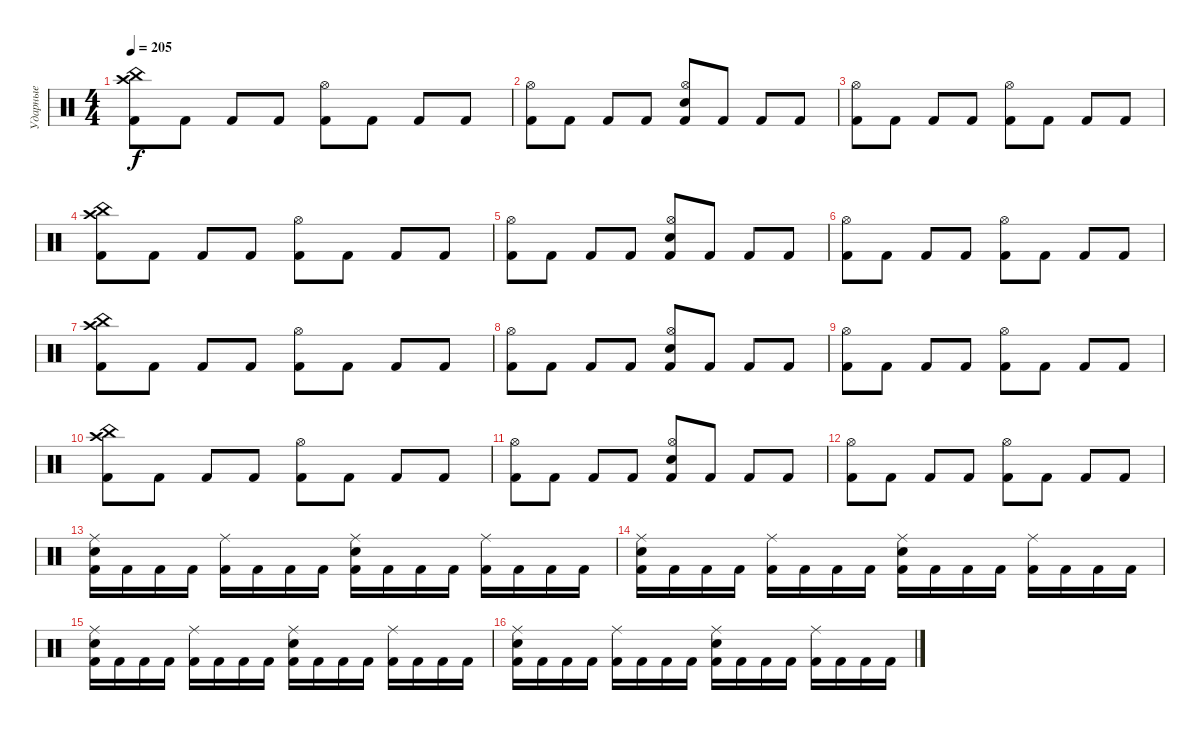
\track ("Ударные" "Ударные") {instrument percussion}
\staff {score}
\articulation defaults
\ts (4 4)
\tempo 205
\clef neutral
\ks c
("Kick (hit) 2" "Crash high (hit)" "China (hit)").8{dy f} "Kick (hit) 2".8 "Kick (hit) 2".8 "Kick (hit) 2".8 ("Kick (hit) 2" "Hi-Hat (open)").8 "Kick (hit) 2".8 "Kick (hit) 2".8 "Kick (hit) 2".8 |
("Kick (hit) 2" "Hi-Hat (open)").8 "Kick (hit) 2".8 "Kick (hit) 2".8 "Kick (hit) 2".8 ("Kick (hit) 2" "Electric Snare (hit)" "Hi-Hat (open)").8 "Kick (hit) 2".8 "Kick (hit) 2".8 "Kick (hit) 2".8 |
("Kick (hit) 2" "Hi-Hat (open)").8 "Kick (hit) 2".8 "Kick (hit) 2".8 "Kick (hit) 2".8 ("Kick (hit) 2" "Hi-Hat (open)").8 "Kick (hit) 2".8 "Kick (hit) 2".8 "Kick (hit) 2".8 |
("Kick (hit) 2" "Crash high (hit)" "China (hit)").8 "Kick (hit) 2".8 "Kick (hit) 2".8 "Kick (hit) 2".8 ("Kick (hit) 2" "Hi-Hat (open)").8 "Kick (hit) 2".8 "Kick (hit) 2".8 "Kick (hit) 2".8 |
("Kick (hit) 2" "Hi-Hat (open)").8 "Kick (hit) 2".8 "Kick (hit) 2".8 "Kick (hit) 2".8 ("Kick (hit) 2" "Electric Snare (hit)" "Hi-Hat (open)").8 "Kick (hit) 2".8 "Kick (hit) 2".8 "Kick (hit) 2".8 |
("Kick (hit) 2" "Hi-Hat (open)").8 "Kick (hit) 2".8 "Kick (hit) 2".8 "Kick (hit) 2".8 ("Kick (hit) 2" "Hi-Hat (open)").8 "Kick (hit) 2".8 "Kick (hit) 2".8 "Kick (hit) 2".8 |
("Kick (hit) 2" "Crash high (hit)" "China (hit)").8 "Kick (hit) 2".8 "Kick (hit) 2".8 "Kick (hit) 2".8 ("Kick (hit) 2" "Hi-Hat (open)").8 "Kick (hit) 2".8 "Kick (hit) 2".8 "Kick (hit) 2".8 |
("Kick (hit) 2" "Hi-Hat (open)").8 "Kick (hit) 2".8 "Kick (hit) 2".8 "Kick (hit) 2".8 ("Kick (hit) 2" "Electric Snare (hit)" "Hi-Hat (open)").8 "Kick (hit) 2".8 "Kick (hit) 2".8 "Kick (hit) 2".8 |
("Kick (hit) 2" "Hi-Hat (open)").8 "Kick (hit) 2".8 "Kick (hit) 2".8 "Kick (hit) 2".8 ("Kick (hit) 2" "Hi-Hat (open)").8 "Kick (hit) 2".8 "Kick (hit) 2".8 "Kick (hit) 2".8 |
("Kick (hit) 2" "Crash high (hit)" "China (hit)").8 "Kick (hit) 2".8 "Kick (hit) 2".8 "Kick (hit) 2".8 ("Kick (hit) 2" "Hi-Hat (open)").8 "Kick (hit) 2".8 "Kick (hit) 2".8 "Kick (hit) 2".8 |
("Kick (hit) 2" "Hi-Hat (open)").8 "Kick (hit) 2".8 "Kick (hit) 2".8 "Kick (hit) 2".8 ("Kick (hit) 2" "Electric Snare (hit)" "Hi-Hat (open)").8 "Kick (hit) 2".8 "Kick (hit) 2".8 "Kick (hit) 2".8 |
("Kick (hit) 2" "Hi-Hat (open)").8 "Kick (hit) 2".8 "Kick (hit) 2".8 "Kick (hit) 2".8 ("Kick (hit) 2" "Hi-Hat (open)").8 "Kick (hit) 2".8 "Kick (hit) 2".8 "Kick (hit) 2".8 |
("Electric Snare (hit)" "Ride (middle)" "Kick (hit) 2").16 "Kick (hit) 2".16 "Kick (hit) 2".16 "Kick (hit) 2".16 ("Kick (hit) 2" "Ride (middle)").16 "Kick (hit) 2".16 "Kick (hit) 2".16 "Kick (hit) 2".16 ("Electric Snare (hit)" "Ride (middle)" "Kick (hit) 2").16 "Kick (hit) 2".16 "Kick (hit) 2".16 "Kick (hit) 2".16 ("Kick (hit) 2" "Ride (middle)").16 "Kick (hit) 2".16 "Kick (hit) 2".16 "Kick (hit) 2".16 |
("Electric Snare (hit)" "Ride (middle)" "Kick (hit) 2").16 "Kick (hit) 2".16 "Kick (hit) 2".16 "Kick (hit) 2".16 ("Kick (hit) 2" "Ride (middle)").16 "Kick (hit) 2".16 "Kick (hit) 2".16 "Kick (hit) 2".16 ("Electric Snare (hit)" "Ride (middle)" "Kick (hit) 2").16 "Kick (hit) 2".16 "Kick (hit) 2".16 "Kick (hit) 2".16 ("Kick (hit) 2" "Ride (middle)").16 "Kick (hit) 2".16 "Kick (hit) 2".16 "Kick (hit) 2".16 |
("Electric Snare (hit)" "Ride (middle)" "Kick (hit) 2").16 "Kick (hit) 2".16 "Kick (hit) 2".16 "Kick (hit) 2".16 ("Kick (hit) 2" "Ride (middle)").16 "Kick (hit) 2".16 "Kick (hit) 2".16 "Kick (hit) 2".16 ("Electric Snare (hit)" "Ride (middle)" "Kick (hit) 2").16 "Kick (hit) 2".16 "Kick (hit) 2".16 "Kick (hit) 2".16 ("Kick (hit) 2" "Ride (middle)").16 "Kick (hit) 2".16 "Kick (hit) 2".16 "Kick (hit) 2".16 |
("Electric Snare (hit)" "Ride (middle)" "Kick (hit) 2").16 "Kick (hit) 2".16 "Kick (hit) 2".16 "Kick (hit) 2".16 ("Kick (hit) 2" "Ride (middle)").16 "Kick (hit) 2".16 "Kick (hit) 2".16 "Kick (hit) 2".16 ("Electric Snare (hit)" "Ride (middle)" "Kick (hit) 2").16 "Kick (hit) 2".16 "Kick (hit) 2".16 "Kick (hit) 2".16 ("Kick (hit) 2" "Ride (middle)").16 "Kick (hit) 2".16 "Kick (hit) 2".16 "Kick (hit) 2".16
